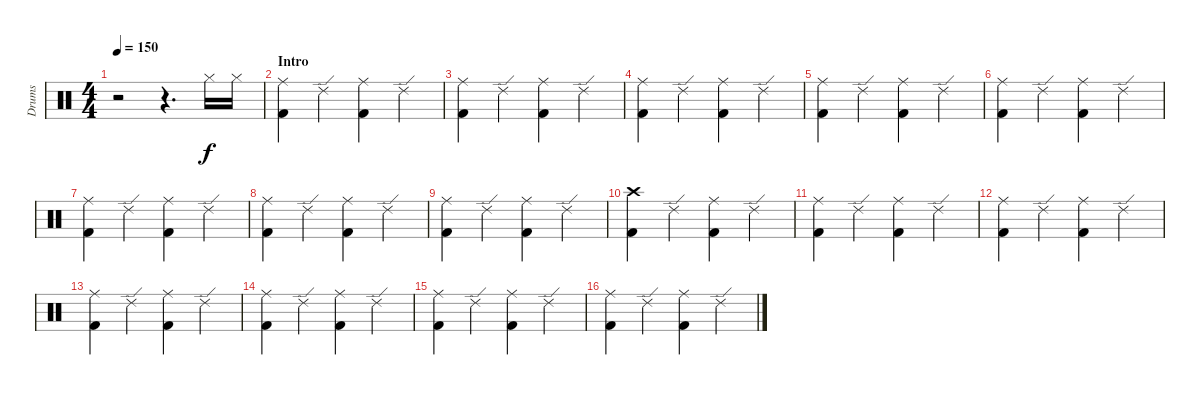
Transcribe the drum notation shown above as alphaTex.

\track ("Drums" "Drums") {instrument percussion}
\staff {score}
\articulation defaults
\ts (4 4)
\tempo 150
\clef neutral
\ks c
r.2{dy f} r.4{d} "Hi-Hat (closed)".16 "Hi-Hat (closed)".16 |
\section ("" "Intro")
("Ride (middle)" "Kick (hit) 2").4 "Ride (edge) 2".4 ("Ride (middle)" "Kick (hit) 2").4 "Ride (edge) 2".4 |
("Ride (middle)" "Kick (hit) 2").4 "Ride (edge) 2".4 ("Ride (middle)" "Kick (hit) 2").4 "Ride (edge) 2".4 |
("Ride (middle)" "Kick (hit) 2").4 "Ride (edge) 2".4 ("Ride (middle)" "Kick (hit) 2").4 "Ride (edge) 2".4 |
("Ride (middle)" "Kick (hit) 2").4 "Ride (edge) 2".4 ("Ride (middle)" "Kick (hit) 2").4 "Ride (edge) 2".4 |
("Ride (middle)" "Kick (hit) 2").4 "Ride (edge) 2".4 ("Ride (middle)" "Kick (hit) 2").4 "Ride (edge) 2".4 |
("Ride (middle)" "Kick (hit) 2").4 "Ride (edge) 2".4 ("Ride (middle)" "Kick (hit) 2").4 "Ride (edge) 2".4 |
("Ride (middle)" "Kick (hit) 2").4 "Ride (edge) 2".4 ("Ride (middle)" "Kick (hit) 2").4 "Ride (edge) 2".4 |
("Ride (middle)" "Kick (hit) 2").4 "Ride (edge) 2".4 ("Ride (middle)" "Kick (hit) 2").4 "Ride (edge) 2".4 |
("Crash high (hit)" "Kick (hit) 2").4 "Ride (edge) 2".4 ("Ride (middle)" "Kick (hit) 2").4 "Ride (edge) 2".4 |
("Ride (middle)" "Kick (hit) 2").4 "Ride (edge) 2".4 ("Ride (middle)" "Kick (hit) 2").4 "Ride (edge) 2".4 |
("Ride (middle)" "Kick (hit) 2").4 "Ride (edge) 2".4 ("Ride (middle)" "Kick (hit) 2").4 "Ride (edge) 2".4 |
("Ride (middle)" "Kick (hit) 2").4 "Ride (edge) 2".4 ("Ride (middle)" "Kick (hit) 2").4 "Ride (edge) 2".4 |
("Ride (middle)" "Kick (hit) 2").4 "Ride (edge) 2".4 ("Ride (middle)" "Kick (hit) 2").4 "Ride (edge) 2".4 |
("Ride (middle)" "Kick (hit) 2").4 "Ride (edge) 2".4 ("Ride (middle)" "Kick (hit) 2").4 "Ride (edge) 2".4 |
("Ride (middle)" "Kick (hit) 2").4 "Ride (edge) 2".4 ("Ride (middle)" "Kick (hit) 2").4 "Ride (edge) 2".4
